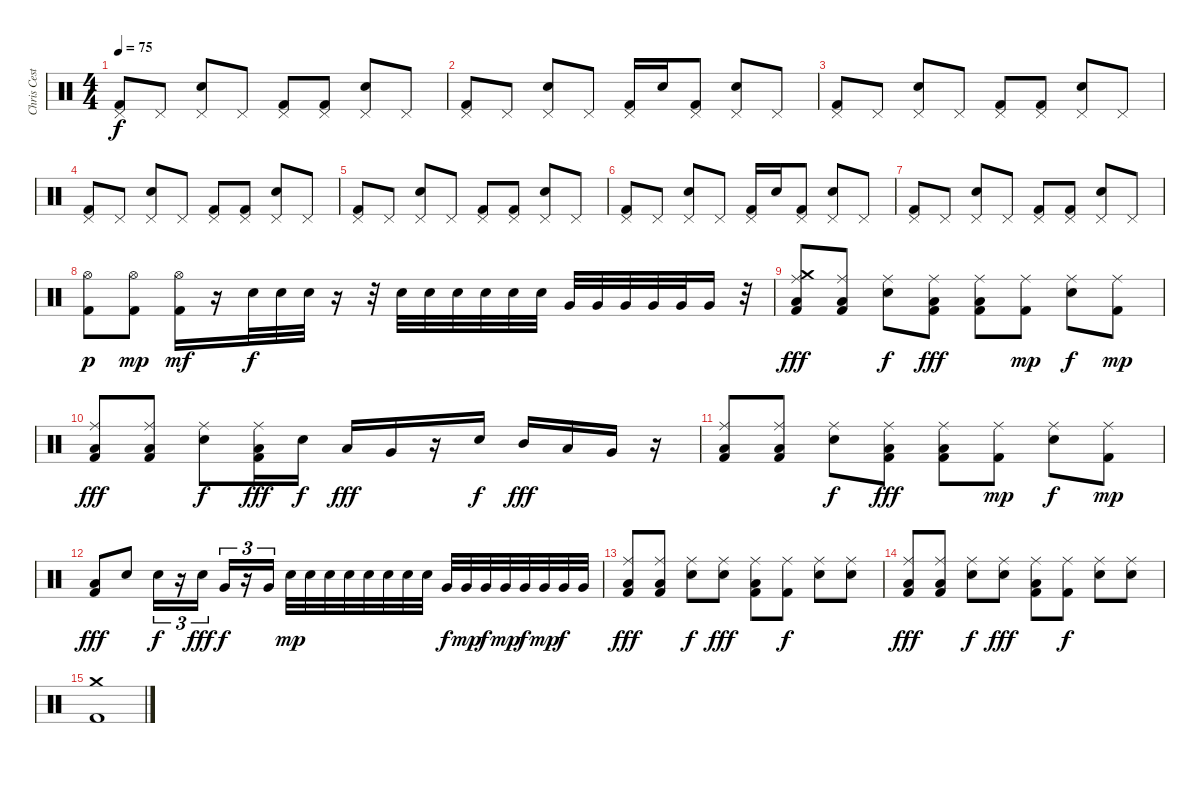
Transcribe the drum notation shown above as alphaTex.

\track ("Chris Cester" "Chris Cest") {instrument percussion}
\staff {score}
\articulation defaults
\ts (4 4)
\tempo 75
\clef neutral
\ks c
("Pedal Hi-Hat (hit)" "Kick (hit) 2").8{dy f} "Pedal Hi-Hat (hit)".8 ("Pedal Hi-Hat (hit)" "Snare (hit) 2").8 "Pedal Hi-Hat (hit)".8 ("Pedal Hi-Hat (hit)" "Kick (hit) 2").8 ("Pedal Hi-Hat (hit)" "Kick (hit) 2").8 ("Pedal Hi-Hat (hit)" "Snare (hit) 2").8 "Pedal Hi-Hat (hit)".8 |
("Pedal Hi-Hat (hit)" "Kick (hit) 2").8 "Pedal Hi-Hat (hit)".8 ("Pedal Hi-Hat (hit)" "Snare (hit) 2").8 "Pedal Hi-Hat (hit)".8 ("Pedal Hi-Hat (hit)" "Kick (hit) 2").16 "Snare (hit) 2".16 ("Pedal Hi-Hat (hit)" "Kick (hit) 2").8 ("Pedal Hi-Hat (hit)" "Snare (hit) 2").8 "Pedal Hi-Hat (hit)".8 |
("Pedal Hi-Hat (hit)" "Kick (hit) 2").8 "Pedal Hi-Hat (hit)".8 ("Pedal Hi-Hat (hit)" "Snare (hit) 2").8 "Pedal Hi-Hat (hit)".8 ("Pedal Hi-Hat (hit)" "Kick (hit) 2").8 ("Pedal Hi-Hat (hit)" "Kick (hit) 2").8 ("Pedal Hi-Hat (hit)" "Snare (hit) 2").8 "Pedal Hi-Hat (hit)".8 |
("Pedal Hi-Hat (hit)" "Kick (hit) 2").8 "Pedal Hi-Hat (hit)".8 ("Pedal Hi-Hat (hit)" "Snare (hit) 2").8 "Pedal Hi-Hat (hit)".8 ("Pedal Hi-Hat (hit)" "Kick (hit) 2").8 ("Pedal Hi-Hat (hit)" "Kick (hit) 2").8 ("Pedal Hi-Hat (hit)" "Snare (hit) 2").8 "Pedal Hi-Hat (hit)".8 |
("Pedal Hi-Hat (hit)" "Kick (hit) 2").8 "Pedal Hi-Hat (hit)".8 ("Pedal Hi-Hat (hit)" "Snare (hit) 2").8 "Pedal Hi-Hat (hit)".8 ("Pedal Hi-Hat (hit)" "Kick (hit) 2").8 ("Pedal Hi-Hat (hit)" "Kick (hit) 2").8 ("Pedal Hi-Hat (hit)" "Snare (hit) 2").8 "Pedal Hi-Hat (hit)".8 |
("Pedal Hi-Hat (hit)" "Kick (hit) 2").8 "Pedal Hi-Hat (hit)".8 ("Pedal Hi-Hat (hit)" "Snare (hit) 2").8 "Pedal Hi-Hat (hit)".8 ("Pedal Hi-Hat (hit)" "Kick (hit) 2").16 "Snare (hit) 2".16 ("Pedal Hi-Hat (hit)" "Kick (hit) 2").8 ("Pedal Hi-Hat (hit)" "Snare (hit) 2").8 "Pedal Hi-Hat (hit)".8 |
("Pedal Hi-Hat (hit)" "Kick (hit) 2").8 "Pedal Hi-Hat (hit)".8 ("Pedal Hi-Hat (hit)" "Snare (hit) 2").8 "Pedal Hi-Hat (hit)".8 ("Pedal Hi-Hat (hit)" "Kick (hit) 2").8 ("Pedal Hi-Hat (hit)" "Kick (hit) 2").8 ("Pedal Hi-Hat (hit)" "Snare (hit) 2").8 "Pedal Hi-Hat (hit)".8 |
("Hi-Hat (open)" "Kick (hit) 2").8{dy p} ("Hi-Hat (open)" "Kick (hit) 2").8{dy mp} ("Hi-Hat (open)" "Kick (hit) 2").16{dy mf} r.16 "Snare (hit) 2".32{dy f} "Snare (hit) 2".32 "Snare (hit) 2".32 r.16 r.32 "Snare (hit) 2".32 "Snare (hit) 2".32 "Snare (hit) 2".32 "Snare (hit) 2".32 "Snare (hit) 2".32 "Snare (hit) 2".32 "Very Low Tom (hit)".32 "Very Low Tom (hit)".32 "Very Low Tom (hit)".32 "Very Low Tom (hit)".32 "Very Low Tom (hit)".32 "Very Low Tom (hit)".16 r.32 |
("Crash medium (hit)" "Ride (middle)" "Low Floor Tom (hit)" "Kick (hit) 2").8{dy fff} ("Ride (middle)" "Low Floor Tom (hit)" "Kick (hit) 2").8 ("Ride (middle)" "Snare (hit) 2").8{dy f} ("Ride (middle)" "Low Floor Tom (hit)" "Kick (hit) 2").8{dy fff} ("Ride (middle)" "Low Floor Tom (hit)" "Kick (hit) 2").8 ("Ride (middle)" "Kick (hit) 2").8{dy mp} ("Ride (middle)" "Snare (hit) 2").8{dy f} ("Ride (middle)" "Kick (hit) 2").8{dy mp} |
("Ride (middle)" "Low Floor Tom (hit)" "Kick (hit) 2").8{dy fff} ("Ride (middle)" "Low Floor Tom (hit)" "Kick (hit) 2").8 ("Ride (middle)" "Snare (hit) 2").8{dy f} ("Ride (middle)" "Low Floor Tom (hit)" "Kick (hit) 2").16{dy fff} "Snare (hit) 2".16{dy f} "Low Tom (hit)".16{dy fff} "Very Low Tom (hit)".16 r.16 "Snare (hit) 2".16{dy f} "Mid Tom (hit)".16{dy fff} "Low Tom (hit)".16 "Very Low Tom (hit)".16 r.16 |
("Ride (middle)" "Low Floor Tom (hit)" "Kick (hit) 2").8 ("Ride (middle)" "Low Floor Tom (hit)" "Kick (hit) 2").8 ("Ride (middle)" "Snare (hit) 2").8{dy f} ("Ride (middle)" "Low Floor Tom (hit)" "Kick (hit) 2").8{dy fff} ("Ride (middle)" "Low Floor Tom (hit)" "Kick (hit) 2").8 ("Ride (middle)" "Kick (hit) 2").8{dy mp} ("Ride (middle)" "Snare (hit) 2").8{dy f} ("Ride (middle)" "Kick (hit) 2").8{dy mp} |
("Low Floor Tom (hit)" "Kick (hit) 2").8{dy fff} "Snare (hit) 2".8 "Snare (hit) 2".16{tu (3 2) dy f} r.16{tu (3 2)} "Snare (hit) 2".16{tu (3 2) dy fff} "Very Low Tom (hit)".16{tu (3 2) dy f} r.16{tu (3 2)} "Very Low Tom (hit)".16{tu (3 2)} "Snare (hit) 2".32{dy mp} "Snare (hit) 2".32 "Snare (hit) 2".32 "Snare (hit) 2".32 "Snare (hit) 2".32 "Snare (hit) 2".32 "Snare (hit) 2".32 "Snare (hit) 2".32 "Very Low Tom (hit)".32{dy f} "Very Low Tom (hit)".32{dy mp} "Very Low Tom (hit)".32{dy f} "Very Low Tom (hit)".32{dy mp} "Very Low Tom (hit)".32{dy f} "Very Low Tom (hit)".32{dy mp} "Very Low Tom (hit)".32{dy f} "Very Low Tom (hit)".32 |
("Ride (middle)" "Low Floor Tom (hit)" "Kick (hit) 2").8{dy fff} ("Ride (middle)" "Low Floor Tom (hit)" "Kick (hit) 2").8 ("Ride (middle)" "Snare (hit) 2").8{dy f} ("Ride (middle)" "Snare (hit) 2").8{dy fff} ("Ride (middle)" "Low Floor Tom (hit)" "Kick (hit) 2").8 ("Ride (middle)" "Kick (hit) 2").8{dy f} ("Ride (middle)" "Snare (hit) 2").8 ("Ride (middle)" "Snare (hit) 2").8 |
("Ride (middle)" "Low Floor Tom (hit)" "Kick (hit) 2").8{dy fff} ("Ride (middle)" "Low Floor Tom (hit)" "Kick (hit) 2").8 ("Ride (middle)" "Snare (hit) 2").8{dy f} ("Ride (middle)" "Snare (hit) 2").8{dy fff} ("Ride (middle)" "Low Floor Tom (hit)" "Kick (hit) 2").8 ("Ride (middle)" "Kick (hit) 2").8{dy f} ("Ride (middle)" "Snare (hit) 2").8 ("Ride (middle)" "Snare (hit) 2").8 |
("Crash medium (hit)" "Kick (hit) 2").1
